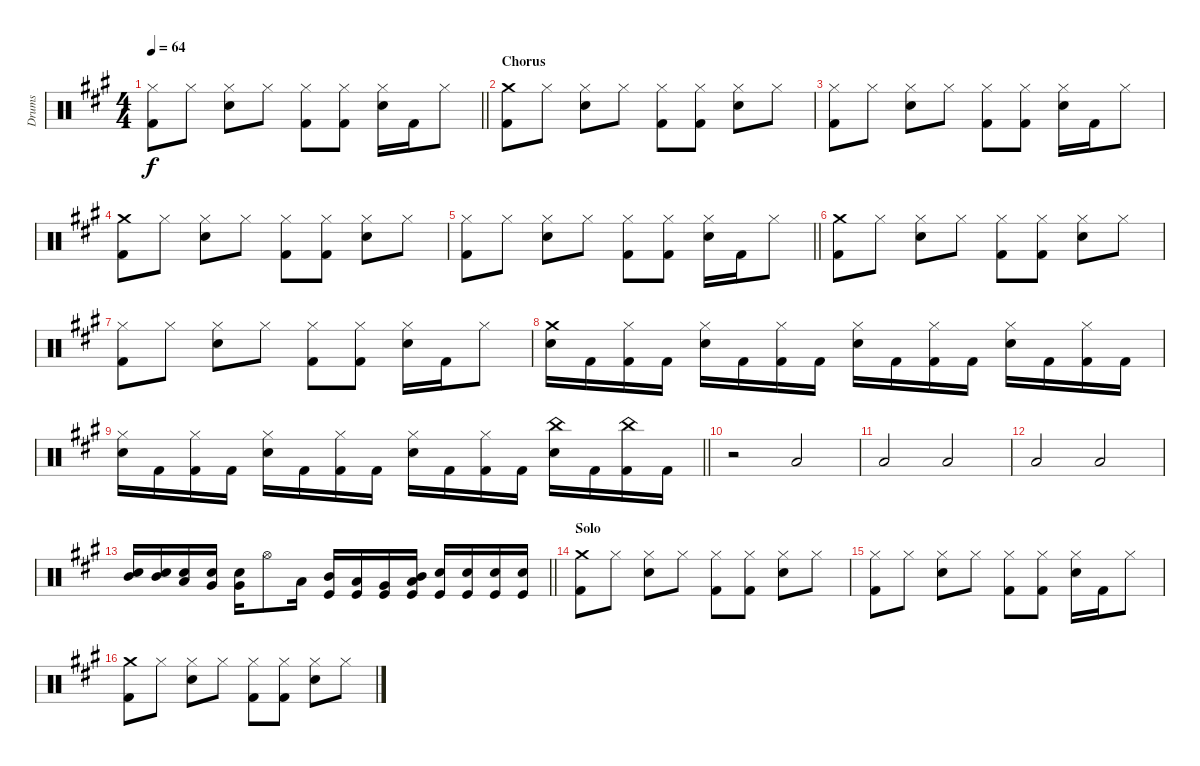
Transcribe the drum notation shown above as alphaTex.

\track ("Drums" "Drums") {instrument percussion}
\staff {score}
\articulation defaults
\ts (4 4)
\tempo 64
\clef neutral
\barLineRight lightlight
\ks a
("Hi-Hat (closed)" "Kick (hit) 2").8{dy f} "Hi-Hat (closed)".8 ("Hi-Hat (closed)" "Electric Snare (hit)").8 "Hi-Hat (closed)".8 ("Hi-Hat (closed)" "Kick (hit) 2").8 ("Hi-Hat (closed)" "Kick (hit) 2").8 ("Hi-Hat (closed)" "Electric Snare (hit)").16 "Kick (hit) 2".16 "Hi-Hat (closed)".8 |
\section ("" "Chorus")
("Crash medium (hit)" "Kick (hit) 2").8 "Hi-Hat (closed)".8 ("Hi-Hat (closed)" "Electric Snare (hit)").8 "Hi-Hat (closed)".8 ("Hi-Hat (closed)" "Kick (hit) 2").8 ("Hi-Hat (closed)" "Kick (hit) 2").8 ("Hi-Hat (closed)" "Electric Snare (hit)").8 "Hi-Hat (closed)".8 |
("Hi-Hat (closed)" "Kick (hit) 2").8 "Hi-Hat (closed)".8 ("Hi-Hat (closed)" "Electric Snare (hit)").8 "Hi-Hat (closed)".8 ("Hi-Hat (closed)" "Kick (hit) 2").8 ("Hi-Hat (closed)" "Kick (hit) 2").8 ("Hi-Hat (closed)" "Electric Snare (hit)").16 "Kick (hit) 2".16 "Hi-Hat (closed)".8 |
("Crash medium (hit)" "Kick (hit) 2").8 "Hi-Hat (closed)".8 ("Hi-Hat (closed)" "Electric Snare (hit)").8 "Hi-Hat (closed)".8 ("Hi-Hat (closed)" "Kick (hit) 2").8 ("Hi-Hat (closed)" "Kick (hit) 2").8 ("Hi-Hat (closed)" "Electric Snare (hit)").8 "Hi-Hat (closed)".8 |
\barLineRight lightlight
("Hi-Hat (closed)" "Kick (hit) 2").8 "Hi-Hat (closed)".8 ("Hi-Hat (closed)" "Electric Snare (hit)").8 "Hi-Hat (closed)".8 ("Hi-Hat (closed)" "Kick (hit) 2").8 ("Hi-Hat (closed)" "Kick (hit) 2").8 ("Hi-Hat (closed)" "Electric Snare (hit)").16 "Kick (hit) 2".16 "Hi-Hat (closed)".8 |
("Crash medium (hit)" "Kick (hit) 2").8 "Hi-Hat (closed)".8 ("Hi-Hat (closed)" "Electric Snare (hit)").8 "Hi-Hat (closed)".8 ("Hi-Hat (closed)" "Kick (hit) 2").8 ("Hi-Hat (closed)" "Kick (hit) 2").8 ("Hi-Hat (closed)" "Electric Snare (hit)").8 "Hi-Hat (closed)".8 |
("Hi-Hat (closed)" "Kick (hit) 2").8 "Hi-Hat (closed)".8 ("Hi-Hat (closed)" "Electric Snare (hit)").8 "Hi-Hat (closed)".8 ("Hi-Hat (closed)" "Kick (hit) 2").8 ("Hi-Hat (closed)" "Kick (hit) 2").8 ("Hi-Hat (closed)" "Electric Snare (hit)").16 "Kick (hit) 2".16 "Hi-Hat (closed)".8 |
("Crash medium (hit)" "Electric Snare (hit)").16 "Kick (hit) 2".16 ("Hi-Hat (closed)" "Kick (hit) 2").16 "Kick (hit) 2".16 ("Hi-Hat (closed)" "Electric Snare (hit)").16 "Kick (hit) 2".16 ("Hi-Hat (closed)" "Kick (hit) 2").16 "Kick (hit) 2".16 ("Hi-Hat (closed)" "Electric Snare (hit)").16 "Kick (hit) 2".16 ("Hi-Hat (closed)" "Kick (hit) 2").16 "Kick (hit) 2".16 ("Hi-Hat (closed)" "Electric Snare (hit)").16 "Kick (hit) 2".16 ("Hi-Hat (closed)" "Kick (hit) 2").16 "Kick (hit) 2".16 |
\barLineRight lightlight
("Hi-Hat (closed)" "Electric Snare (hit)").16 "Kick (hit) 2".16 ("Hi-Hat (closed)" "Kick (hit) 2").16 "Kick (hit) 2".16 ("Hi-Hat (closed)" "Electric Snare (hit)").16 "Kick (hit) 2".16 ("Hi-Hat (closed)" "Kick (hit) 2").16 "Kick (hit) 2".16 ("Hi-Hat (closed)" "Electric Snare (hit)").16 "Kick (hit) 2".16 ("Hi-Hat (closed)" "Kick (hit) 2").16 "Kick (hit) 2".16 ("China (hit)" "Electric Snare (hit)").16 "Kick (hit) 2".16 ("China (hit)" "Kick (hit) 2").16 "Kick (hit) 2".16 |
r.2{volume 3} "Low Floor Tom (hit)".2 |
"Low Floor Tom (hit)".2 "Low Floor Tom (hit)".2 |
"Low Floor Tom (hit)".2 "Low Floor Tom (hit)".2 |
\barLineRight lightlight
("Snare (hit) 2" "Mid Tom (hit)").16 ("Snare (hit) 2" "Mid Tom (hit)").16 ("Snare (hit) 2" "Low Tom (hit)").16 ("Snare (hit) 2" "Very Low Tom (hit)").16 ("Snare (hit) 2" "Very Low Tom (hit)").16 "Hi-Hat (open)".8 "Low Tom (hit)".16 ("Mid Tom (hit)" "Kick (hit)").16 ("Low Tom (hit)" "Kick (hit)").16 ("Very Low Tom (hit)" "Kick (hit)").16 ("Low Tom (hit)" "Mid Tom (hit)" "Kick (hit)").16 ("Snare (hit) 2" "Kick (hit)").16 ("Snare (hit) 2" "Kick (hit)").16 ("Snare (hit) 2" "Kick (hit)").16 ("Snare (hit) 2" "Kick (hit)").16 |
\section ("" "Solo")
("Crash medium (hit)" "Kick (hit) 2").8 "Hi-Hat (closed)".8 ("Hi-Hat (closed)" "Electric Snare (hit)").8 "Hi-Hat (closed)".8 ("Hi-Hat (closed)" "Kick (hit) 2").8 ("Hi-Hat (closed)" "Kick (hit) 2").8 ("Hi-Hat (closed)" "Electric Snare (hit)").8 "Hi-Hat (closed)".8 |
("Hi-Hat (closed)" "Kick (hit) 2").8 "Hi-Hat (closed)".8 ("Hi-Hat (closed)" "Electric Snare (hit)").8 "Hi-Hat (closed)".8 ("Hi-Hat (closed)" "Kick (hit) 2").8 ("Hi-Hat (closed)" "Kick (hit) 2").8 ("Hi-Hat (closed)" "Electric Snare (hit)").16 "Kick (hit) 2".16 "Hi-Hat (closed)".8 |
("Crash medium (hit)" "Kick (hit) 2").8 "Hi-Hat (closed)".8 ("Hi-Hat (closed)" "Electric Snare (hit)").8 "Hi-Hat (closed)".8 ("Hi-Hat (closed)" "Kick (hit) 2").8 ("Hi-Hat (closed)" "Kick (hit) 2").8 ("Hi-Hat (closed)" "Electric Snare (hit)").8 "Hi-Hat (closed)".8
